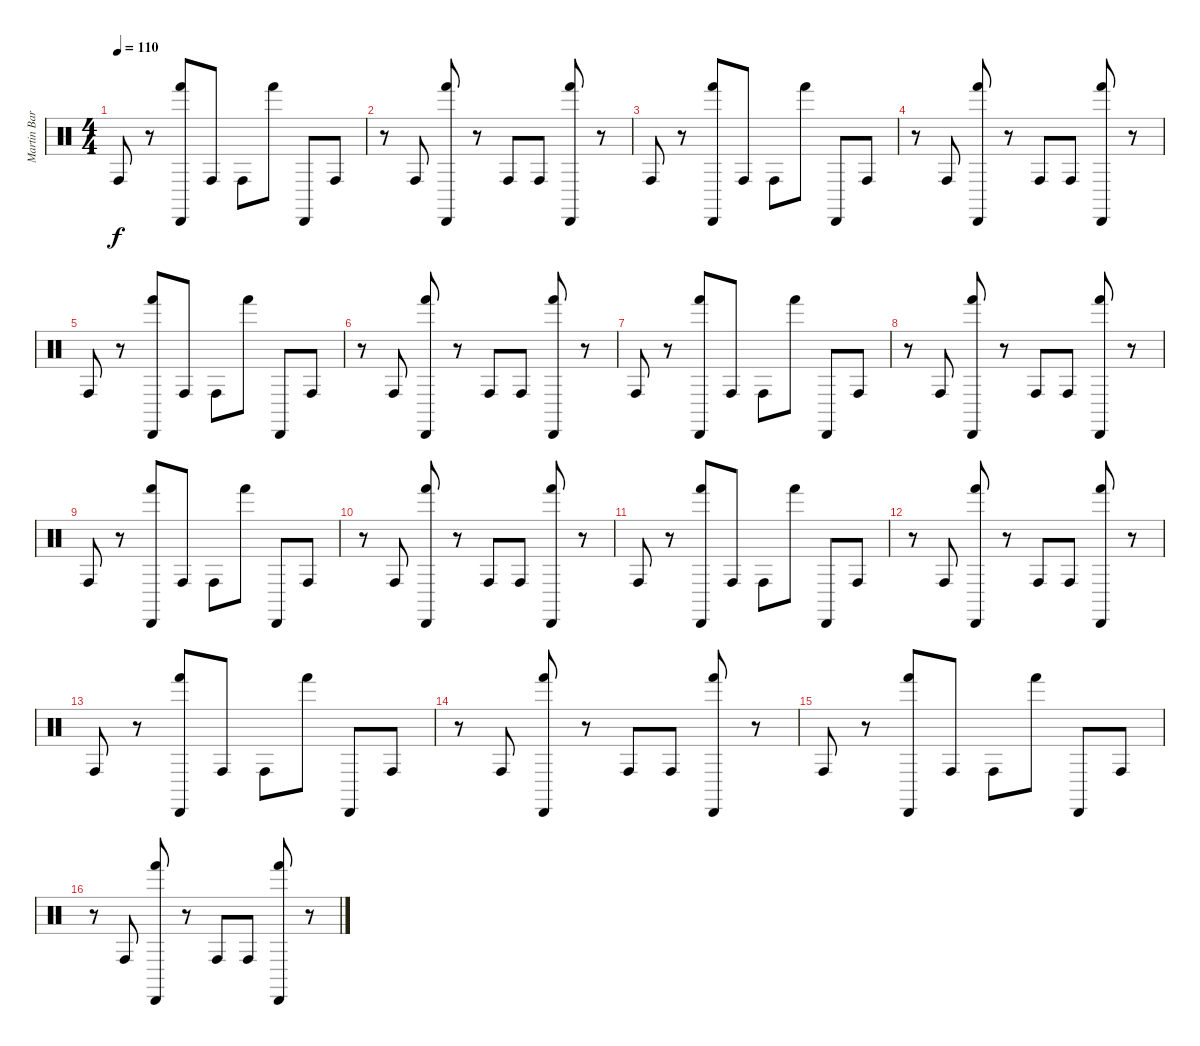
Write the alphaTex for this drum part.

\track ("Martin Barret" "Martin Bar") {instrument percussion}
\staff {score}
\articulation defaults
\ts (4 4)
\tempo 110
\clef neutral
\ks c "Conga high (hit)".8{dy f}
r.8 ("Cabasa (hit)" "Hand (hit)").8 "Conga high (hit)".8 "Conga high (hit)".8 "Hand (hit)".8 "Cabasa (hit)".8 "Conga high (hit)".8 |
r.8 "Conga high (hit)".8 ("Cabasa (hit)" "Hand (hit)").8 r.8 "Conga high (hit)".8 "Conga high (hit)".8 ("Cabasa (hit)" "Hand (hit)").8 r.8 |
"Conga high (hit)".8 r.8 ("Cabasa (hit)" "Hand (hit)").8 "Conga high (hit)".8 "Conga high (hit)".8 "Hand (hit)".8 "Cabasa (hit)".8 "Conga high (hit)".8 |
r.8 "Conga high (hit)".8 ("Cabasa (hit)" "Hand (hit)").8 r.8 "Conga high (hit)".8 "Conga high (hit)".8 ("Cabasa (hit)" "Hand (hit)").8 r.8 |
"Conga high (hit)".8 r.8 ("Cabasa (hit)" "Hand (hit)").8 "Conga high (hit)".8 "Conga high (hit)".8 "Hand (hit)".8 "Cabasa (hit)".8 "Conga high (hit)".8 |
r.8 "Conga high (hit)".8 ("Cabasa (hit)" "Hand (hit)").8 r.8 "Conga high (hit)".8 "Conga high (hit)".8 ("Cabasa (hit)" "Hand (hit)").8 r.8 |
"Conga high (hit)".8 r.8 ("Cabasa (hit)" "Hand (hit)").8 "Conga high (hit)".8 "Conga high (hit)".8 "Hand (hit)".8 "Cabasa (hit)".8 "Conga high (hit)".8 |
r.8 "Conga high (hit)".8 ("Cabasa (hit)" "Hand (hit)").8 r.8 "Conga high (hit)".8 "Conga high (hit)".8 ("Cabasa (hit)" "Hand (hit)").8 r.8 |
"Conga high (hit)".8 r.8 ("Cabasa (hit)" "Hand (hit)").8 "Conga high (hit)".8 "Conga high (hit)".8 "Hand (hit)".8 "Cabasa (hit)".8 "Conga high (hit)".8 |
r.8 "Conga high (hit)".8 ("Cabasa (hit)" "Hand (hit)").8 r.8 "Conga high (hit)".8 "Conga high (hit)".8 ("Cabasa (hit)" "Hand (hit)").8 r.8 |
"Conga high (hit)".8 r.8 ("Cabasa (hit)" "Hand (hit)").8 "Conga high (hit)".8 "Conga high (hit)".8 "Hand (hit)".8 "Cabasa (hit)".8 "Conga high (hit)".8 |
r.8 "Conga high (hit)".8 ("Cabasa (hit)" "Hand (hit)").8 r.8 "Conga high (hit)".8 "Conga high (hit)".8 ("Cabasa (hit)" "Hand (hit)").8 r.8 |
"Conga high (hit)".8 r.8 ("Cabasa (hit)" "Hand (hit)").8 "Conga high (hit)".8 "Conga high (hit)".8 "Hand (hit)".8 "Cabasa (hit)".8 "Conga high (hit)".8 |
r.8 "Conga high (hit)".8 ("Cabasa (hit)" "Hand (hit)").8 r.8 "Conga high (hit)".8 "Conga high (hit)".8 ("Cabasa (hit)" "Hand (hit)").8 r.8 |
"Conga high (hit)".8 r.8 ("Cabasa (hit)" "Hand (hit)").8 "Conga high (hit)".8 "Conga high (hit)".8 "Hand (hit)".8 "Cabasa (hit)".8 "Conga high (hit)".8 |
r.8 "Conga high (hit)".8 ("Cabasa (hit)" "Hand (hit)").8 r.8 "Conga high (hit)".8 "Conga high (hit)".8 ("Cabasa (hit)" "Hand (hit)").8 r.8
